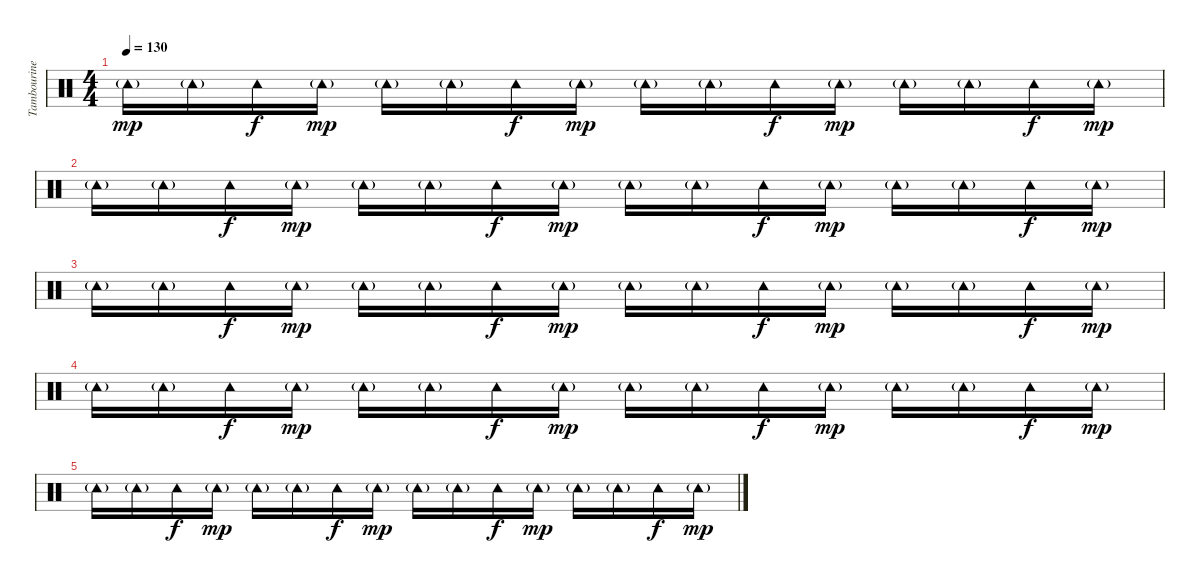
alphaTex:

\track ("Tambourine" "Tambourine") {instrument percussion}
\staff {score}
\articulation defaults
\ts (4 4)
\tempo 130
\clef neutral
\ks c "Tambourine (hit)"{g}.16{dy mp} "Tambourine (hit)"{g}.16 "Tambourine (hit)".16{dy f} "Tambourine (hit)"{g}.16{dy mp} "Tambourine (hit)"{g}.16 "Tambourine (hit)"{g}.16 "Tambourine (hit)".16{dy f} "Tambourine (hit)"{g}.16{dy mp} "Tambourine (hit)"{g}.16 "Tambourine (hit)"{g}.16 "Tambourine (hit)".16{dy f} "Tambourine (hit)"{g}.16{dy mp} "Tambourine (hit)"{g}.16 "Tambourine (hit)"{g}.16 "Tambourine (hit)".16{dy f} "Tambourine (hit)"{g}.16{dy mp}
|
"Tambourine (hit)"{g}.16 "Tambourine (hit)"{g}.16 "Tambourine (hit)".16{dy f} "Tambourine (hit)"{g}.16{dy mp} "Tambourine (hit)"{g}.16 "Tambourine (hit)"{g}.16 "Tambourine (hit)".16{dy f} "Tambourine (hit)"{g}.16{dy mp} "Tambourine (hit)"{g}.16 "Tambourine (hit)"{g}.16 "Tambourine (hit)".16{dy f} "Tambourine (hit)"{g}.16{dy mp} "Tambourine (hit)"{g}.16 "Tambourine (hit)"{g}.16 "Tambourine (hit)".16{dy f} "Tambourine (hit)"{g}.16{dy mp} |
"Tambourine (hit)"{g}.16 "Tambourine (hit)"{g}.16 "Tambourine (hit)".16{dy f} "Tambourine (hit)"{g}.16{dy mp} "Tambourine (hit)"{g}.16 "Tambourine (hit)"{g}.16 "Tambourine (hit)".16{dy f} "Tambourine (hit)"{g}.16{dy mp} "Tambourine (hit)"{g}.16 "Tambourine (hit)"{g}.16 "Tambourine (hit)".16{dy f} "Tambourine (hit)"{g}.16{dy mp} "Tambourine (hit)"{g}.16 "Tambourine (hit)"{g}.16 "Tambourine (hit)".16{dy f} "Tambourine (hit)"{g}.16{dy mp} |
"Tambourine (hit)"{g}.16 "Tambourine (hit)"{g}.16 "Tambourine (hit)".16{dy f} "Tambourine (hit)"{g}.16{dy mp} "Tambourine (hit)"{g}.16 "Tambourine (hit)"{g}.16 "Tambourine (hit)".16{dy f} "Tambourine (hit)"{g}.16{dy mp} "Tambourine (hit)"{g}.16 "Tambourine (hit)"{g}.16 "Tambourine (hit)".16{dy f} "Tambourine (hit)"{g}.16{dy mp} "Tambourine (hit)"{g}.16 "Tambourine (hit)"{g}.16 "Tambourine (hit)".16{dy f} "Tambourine (hit)"{g}.16{dy mp} |
"Tambourine (hit)"{g}.16 "Tambourine (hit)"{g}.16 "Tambourine (hit)".16{dy f} "Tambourine (hit)"{g}.16{dy mp} "Tambourine (hit)"{g}.16 "Tambourine (hit)"{g}.16 "Tambourine (hit)".16{dy f} "Tambourine (hit)"{g}.16{dy mp} "Tambourine (hit)"{g}.16 "Tambourine (hit)"{g}.16 "Tambourine (hit)".16{dy f} "Tambourine (hit)"{g}.16{dy mp} "Tambourine (hit)"{g}.16 "Tambourine (hit)"{g}.16 "Tambourine (hit)".16{dy f} "Tambourine (hit)"{g}.16{dy mp}
